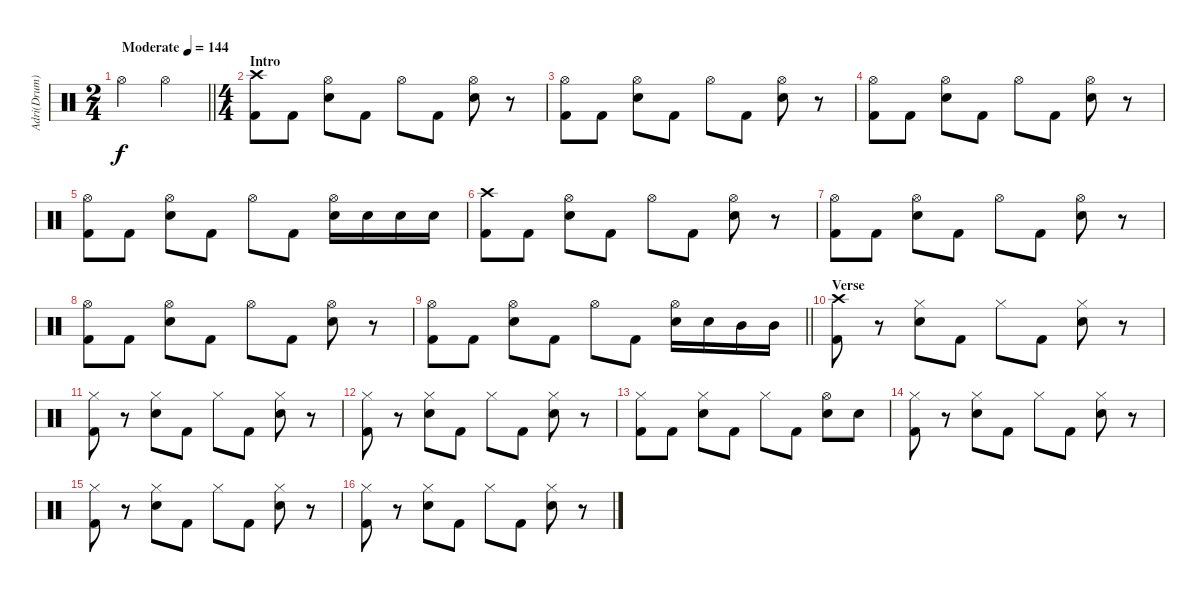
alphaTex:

\track ("Adri(Drum)" "Adri(Drum)") {instrument percussion}
\staff {score}
\articulation defaults
\ts (2 4)
\tempo (144 "Moderate")
\clef neutral
\barLineRight lightlight
\ks c "Hi-Hat (open)".4{dy f} "Hi-Hat (open)".4
|
\ts (4 4)
\section ("" "Intro")
("Crash high (hit)" "Kick (hit) 2").8 "Kick (hit) 2".8 ("Hi-Hat (open)" "Electric Snare (hit)").8 "Kick (hit) 2".8 "Hi-Hat (open)".8 "Kick (hit) 2".8 ("Hi-Hat (open)" "Electric Snare (hit)").8 r.8 |
("Hi-Hat (open)" "Kick (hit) 2").8 "Kick (hit) 2".8 ("Hi-Hat (open)" "Electric Snare (hit)").8 "Kick (hit) 2".8 "Hi-Hat (open)".8 "Kick (hit) 2".8 ("Hi-Hat (open)" "Electric Snare (hit)").8 r.8 |
("Hi-Hat (open)" "Kick (hit) 2").8 "Kick (hit) 2".8 ("Hi-Hat (open)" "Electric Snare (hit)").8 "Kick (hit) 2".8 "Hi-Hat (open)".8 "Kick (hit) 2".8 ("Hi-Hat (open)" "Electric Snare (hit)").8 r.8 |
("Hi-Hat (open)" "Kick (hit) 2").8 "Kick (hit) 2".8 ("Hi-Hat (open)" "Electric Snare (hit)").8 "Kick (hit) 2".8 "Hi-Hat (open)".8 "Kick (hit) 2".8 ("Hi-Hat (open)" "Electric Snare (hit)").16 "Electric Snare (hit)".16 "Electric Snare (hit)".16 "Electric Snare (hit)".16 |
("Crash high (hit)" "Kick (hit) 2").8 "Kick (hit) 2".8 ("Hi-Hat (open)" "Electric Snare (hit)").8 "Kick (hit) 2".8 "Hi-Hat (open)".8 "Kick (hit) 2".8 ("Hi-Hat (open)" "Electric Snare (hit)").8 r.8 |
("Hi-Hat (open)" "Kick (hit) 2").8 "Kick (hit) 2".8 ("Hi-Hat (open)" "Electric Snare (hit)").8 "Kick (hit) 2".8 "Hi-Hat (open)".8 "Kick (hit) 2".8 ("Hi-Hat (open)" "Electric Snare (hit)").8 r.8 |
("Hi-Hat (open)" "Kick (hit) 2").8 "Kick (hit) 2".8 ("Hi-Hat (open)" "Electric Snare (hit)").8 "Kick (hit) 2".8 "Hi-Hat (open)".8 "Kick (hit) 2".8 ("Hi-Hat (open)" "Electric Snare (hit)").8 r.8 |
\barLineRight lightlight
("Hi-Hat (open)" "Kick (hit) 2").8 "Kick (hit) 2".8 ("Hi-Hat (open)" "Electric Snare (hit)").8 "Kick (hit) 2".8 "Hi-Hat (open)".8 "Kick (hit) 2".8 ("Hi-Hat (open)" "Electric Snare (hit)").16 "Electric Snare (hit)".16 "Mid Tom (hit)".16 "Mid Tom (hit)".16 |
\section ("" "Verse")
("Crash high (hit)" "Kick (hit) 2").8 r.8 ("Hi-Hat (closed)" "Electric Snare (hit)").8 "Kick (hit) 2".8 "Hi-Hat (closed)".8 "Kick (hit) 2".8 ("Hi-Hat (closed)" "Electric Snare (hit)").8 r.8 |
("Hi-Hat (closed)" "Kick (hit) 2").8 r.8 ("Hi-Hat (closed)" "Electric Snare (hit)").8 "Kick (hit) 2".8 "Hi-Hat (closed)".8 "Kick (hit) 2".8 ("Hi-Hat (closed)" "Electric Snare (hit)").8 r.8 |
("Hi-Hat (closed)" "Kick (hit) 2").8 r.8 ("Hi-Hat (closed)" "Electric Snare (hit)").8 "Kick (hit) 2".8 "Hi-Hat (closed)".8 "Kick (hit) 2".8 ("Hi-Hat (closed)" "Electric Snare (hit)").8 r.8 |
("Hi-Hat (closed)" "Kick (hit) 2").8 "Kick (hit) 2".8 ("Hi-Hat (closed)" "Electric Snare (hit)").8 "Kick (hit) 2".8 "Hi-Hat (closed)".8 "Kick (hit) 2".8 ("Hi-Hat (open)" "Electric Snare (hit)").8 "Electric Snare (hit)".8 |
("Hi-Hat (closed)" "Kick (hit) 2").8 r.8 ("Hi-Hat (closed)" "Electric Snare (hit)").8 "Kick (hit) 2".8 "Hi-Hat (closed)".8 "Kick (hit) 2".8 ("Hi-Hat (closed)" "Electric Snare (hit)").8 r.8 |
("Hi-Hat (closed)" "Kick (hit) 2").8 r.8 ("Hi-Hat (closed)" "Electric Snare (hit)").8 "Kick (hit) 2".8 "Hi-Hat (closed)".8 "Kick (hit) 2".8 ("Hi-Hat (closed)" "Electric Snare (hit)").8 r.8 |
("Hi-Hat (closed)" "Kick (hit) 2").8 r.8 ("Hi-Hat (closed)" "Electric Snare (hit)").8 "Kick (hit) 2".8 "Hi-Hat (closed)".8 "Kick (hit) 2".8 ("Hi-Hat (closed)" "Electric Snare (hit)").8 r.8
